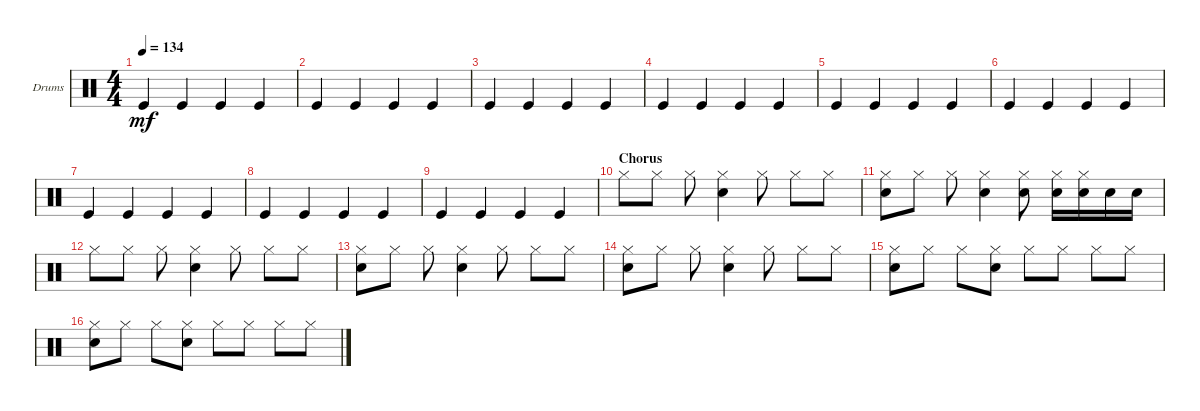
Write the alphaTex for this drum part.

\defaultSystemsLayout 4
\bracketExtendMode groupsimilarinstruments
\firstSystemTrackNameOrientation horizontal
\otherSystemsTrackNameOrientation horizontal
\track ("Drumkit" "Drums") {instrument percussion}
\staff {score}
\articulation defaults
\ts (4 4)
\tempo 134
\clef neutral
\scale
0.333333
\ks c "Kick (hit)".4{dy mf} "Kick (hit)".4 "Kick (hit)".4 "Kick (hit)".4
|
\scale
0.333333 "Kick (hit)".4 "Kick (hit)".4 "Kick (hit)".4 "Kick (hit)".4 |
\scale
0.333333 "Kick (hit)".4 "Kick (hit)".4 "Kick (hit)".4 "Kick (hit)".4 |
\scale
0.333333 "Kick (hit)".4 "Kick (hit)".4 "Kick (hit)".4 "Kick (hit)".4 |
\scale
0.333333 "Kick (hit)".4 "Kick (hit)".4 "Kick (hit)".4 "Kick (hit)".4 |
\scale
0.333333 "Kick (hit)".4 "Kick (hit)".4 "Kick (hit)".4 "Kick (hit)".4 |
\scale
0.333333 "Kick (hit)".4 "Kick (hit)".4 "Kick (hit)".4 "Kick (hit)".4 |
\scale
0.333333 "Kick (hit)".4 "Kick (hit)".4 "Kick (hit)".4 "Kick (hit)".4 |
\scale
0.333333 "Kick (hit)".4 "Kick (hit)".4 "Kick (hit)".4 "Kick (hit)".4 |
\section ("" "Chorus")
\scale
0.333333 "Hi-Hat (closed)".8 "Hi-Hat (closed)".8 "Hi-Hat (closed)".8 ("Hi-Hat (closed)" "Snare (hit) 2").4 "Hi-Hat (closed)".8 "Hi-Hat (closed)".8 "Hi-Hat (closed)".8 |
\scale
0.333333 ("Hi-Hat (closed)" "Snare (hit) 2").8 "Hi-Hat (closed)".8 "Hi-Hat (closed)".8 ("Hi-Hat (closed)" "Snare (hit) 2").4 ("Hi-Hat (closed)" "Snare (hit) 2").8 ("Hi-Hat (closed)" "Snare (hit) 2").16 ("Hi-Hat (closed)" "Snare (hit) 2").16 "Snare (hit) 2".16 "Snare (hit) 2".16 |
\scale
0.333333 "Hi-Hat (closed)".8 "Hi-Hat (closed)".8 "Hi-Hat (closed)".8 ("Hi-Hat (closed)" "Snare (hit) 2").4 "Hi-Hat (closed)".8 "Hi-Hat (closed)".8 "Hi-Hat (closed)".8 |
("Hi-Hat (closed)" "Snare (hit) 2").8 "Hi-Hat (closed)".8 "Hi-Hat (closed)".8 ("Hi-Hat (closed)" "Snare (hit) 2").4 "Hi-Hat (closed)".8 "Hi-Hat (closed)".8 "Hi-Hat (closed)".8 |
\scale
0.333333 ("Hi-Hat (closed)" "Snare (hit) 2").8 "Hi-Hat (closed)".8 "Hi-Hat (closed)".8 ("Hi-Hat (closed)" "Snare (hit) 2").4 "Hi-Hat (closed)".8 "Hi-Hat (closed)".8 "Hi-Hat (closed)".8 |
\scale
0.333333 ("Hi-Hat (closed)" "Snare (hit) 2").8 "Hi-Hat (closed)".8 "Hi-Hat (closed)".8 ("Hi-Hat (closed)" "Snare (hit) 2").8 "Hi-Hat (closed)".8 "Hi-Hat (closed)".8 "Hi-Hat (closed)".8 "Hi-Hat (closed)".8 |
\scale
0.333333 ("Hi-Hat (closed)" "Snare (hit) 2").8 "Hi-Hat (closed)".8 "Hi-Hat (closed)".8 ("Hi-Hat (closed)" "Snare (hit) 2").8 "Hi-Hat (closed)".8 "Hi-Hat (closed)".8 "Hi-Hat (closed)".8 "Hi-Hat (closed)".8
